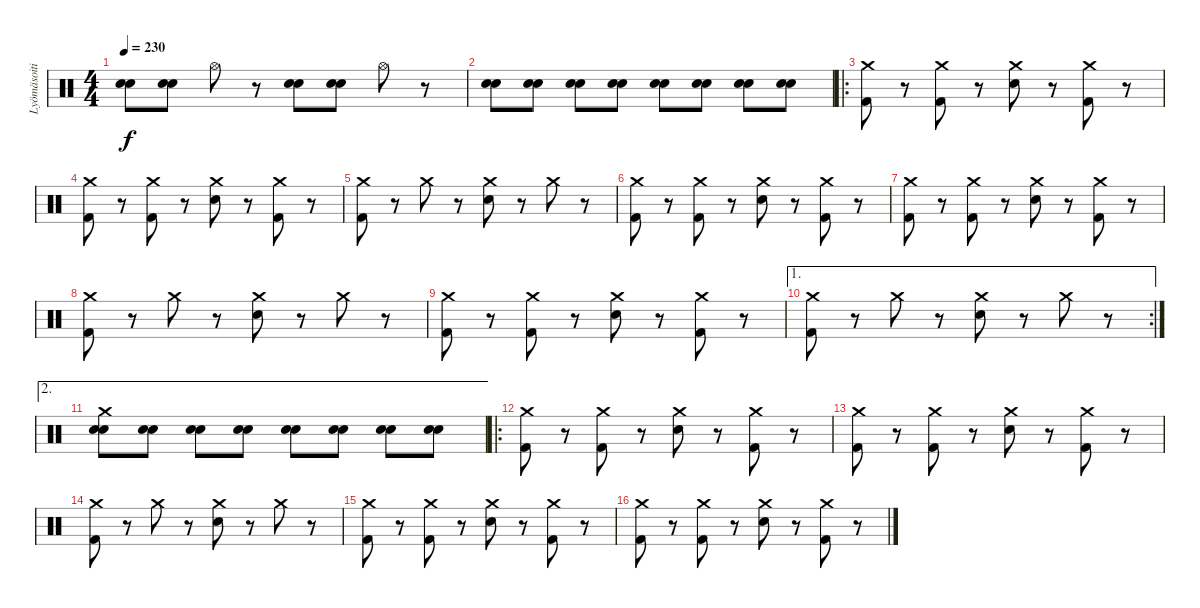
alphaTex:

\track ("Lyömäsoitin" "Lyömäsoiti") {instrument percussion}
\staff {score}
\articulation defaults
\ts (4 4)
\tempo 230
\clef neutral
\ks c
("Electric Snare (hit)" "Snare (hit) 2").8{dy f} ("Electric Snare (hit)" "Snare (hit) 2").8 "Hi-Hat (open)".8 r.8 ("Snare (hit) 2" "Electric Snare (hit)").8 ("Electric Snare (hit)" "Snare (hit) 2").8 "Hi-Hat (open)".8 r.8 |
("Electric Snare (hit)" "Snare (hit) 2").8 ("Electric Snare (hit)" "Snare (hit) 2").8 ("Electric Snare (hit)" "Snare (hit) 2").8 ("Electric Snare (hit)" "Snare (hit) 2").8 ("Electric Snare (hit)" "Snare (hit) 2").8 ("Electric Snare (hit)" "Snare (hit) 2").8 ("Electric Snare (hit)" "Snare (hit) 2").8 ("Electric Snare (hit)" "Snare (hit) 2").8 |
\ro
("Crash medium (hit)" "Kick (hit) 2").8 r.8 ("Crash medium (hit)" "Kick (hit) 2").8 r.8 ("Crash medium (hit)" "Electric Snare (hit)").8 r.8 ("Crash medium (hit)" "Kick (hit) 2").8 r.8 |
("Crash medium (hit)" "Kick (hit) 2").8 r.8 ("Crash medium (hit)" "Kick (hit) 2").8 r.8 ("Crash medium (hit)" "Electric Snare (hit)").8 r.8 ("Crash medium (hit)" "Kick (hit) 2").8 r.8 |
("Crash medium (hit)" "Kick (hit) 2").8 r.8 "Crash medium (hit)".8 r.8 ("Crash medium (hit)" "Electric Snare (hit)").8 r.8 "Crash medium (hit)".8 r.8 |
("Crash medium (hit)" "Kick (hit) 2").8 r.8 ("Crash medium (hit)" "Kick (hit) 2").8 r.8 ("Crash medium (hit)" "Electric Snare (hit)").8 r.8 ("Crash medium (hit)" "Kick (hit) 2").8 r.8 |
("Crash medium (hit)" "Kick (hit) 2").8 r.8 ("Crash medium (hit)" "Kick (hit) 2").8 r.8 ("Crash medium (hit)" "Electric Snare (hit)").8 r.8 ("Crash medium (hit)" "Kick (hit) 2").8 r.8 |
("Crash medium (hit)" "Kick (hit) 2").8 r.8 "Crash medium (hit)".8 r.8 ("Crash medium (hit)" "Electric Snare (hit)").8 r.8 "Crash medium (hit)".8 r.8 |
("Crash medium (hit)" "Kick (hit) 2").8 r.8 ("Crash medium (hit)" "Kick (hit) 2").8 r.8 ("Crash medium (hit)" "Electric Snare (hit)").8 r.8 ("Crash medium (hit)" "Kick (hit) 2").8 r.8 |
\ae 1
\rc 2
("Crash medium (hit)" "Kick (hit) 2").8 r.8 "Crash medium (hit)".8 r.8 ("Crash medium (hit)" "Electric Snare (hit)").8 r.8 "Crash medium (hit)".8 r.8 |
\ae 2
("Crash medium (hit)" "Electric Snare (hit)" "Snare (hit) 2").8 ("Electric Snare (hit)" "Snare (hit) 2").8 ("Electric Snare (hit)" "Snare (hit) 2").8 ("Electric Snare (hit)" "Snare (hit) 2").8 ("Electric Snare (hit)" "Snare (hit) 2").8 ("Electric Snare (hit)" "Snare (hit) 2").8 ("Electric Snare (hit)" "Snare (hit) 2").8 ("Electric Snare (hit)" "Snare (hit) 2").8 |
\ro
("Crash medium (hit)" "Kick (hit) 2").8 r.8 ("Crash medium (hit)" "Kick (hit) 2").8 r.8 ("Crash medium (hit)" "Electric Snare (hit)").8 r.8 ("Crash medium (hit)" "Kick (hit) 2").8 r.8 |
("Crash medium (hit)" "Kick (hit) 2").8 r.8 ("Crash medium (hit)" "Kick (hit) 2").8 r.8 ("Crash medium (hit)" "Electric Snare (hit)").8 r.8 ("Crash medium (hit)" "Kick (hit) 2").8 r.8 |
("Crash medium (hit)" "Kick (hit) 2").8 r.8 "Crash medium (hit)".8 r.8 ("Crash medium (hit)" "Electric Snare (hit)").8 r.8 "Crash medium (hit)".8 r.8 |
("Crash medium (hit)" "Kick (hit) 2").8 r.8 ("Crash medium (hit)" "Kick (hit) 2").8 r.8 ("Crash medium (hit)" "Electric Snare (hit)").8 r.8 ("Crash medium (hit)" "Kick (hit) 2").8 r.8 |
("Crash medium (hit)" "Kick (hit) 2").8 r.8 ("Crash medium (hit)" "Kick (hit) 2").8 r.8 ("Crash medium (hit)" "Electric Snare (hit)").8 r.8 ("Crash medium (hit)" "Kick (hit) 2").8 r.8
